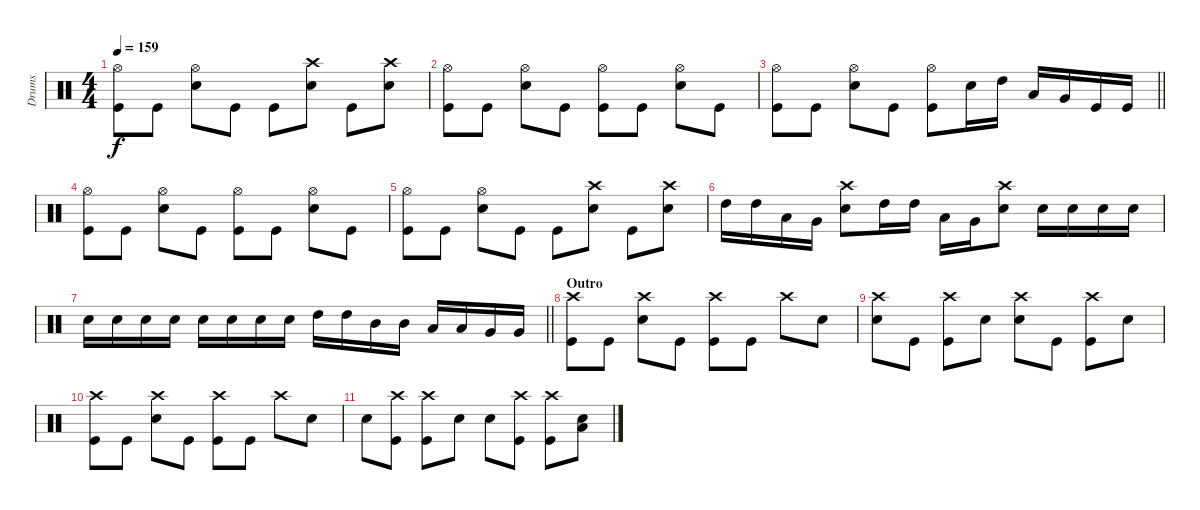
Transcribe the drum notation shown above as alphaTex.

\track ("Drums" "Drums") {instrument percussion}
\staff {score}
\articulation defaults
\ts (4 4)
\tempo 159
\clef neutral
\ks c
("Hi-Hat (open)" "Kick (hit)").8{dy f} "Kick (hit)".8 ("Hi-Hat (open)" "Snare (hit) 2").8 "Kick (hit)".8 "Kick (hit)".8 ("Crash high (hit)" "Snare (hit) 2").8 "Kick (hit)".8 ("Crash high (hit)" "Snare (hit) 2").8 |
("Hi-Hat (open)" "Kick (hit)").8 "Kick (hit)".8 ("Hi-Hat (open)" "Snare (hit) 2").8 "Kick (hit)".8 ("Hi-Hat (open)" "Kick (hit)").8 "Kick (hit)".8 ("Hi-Hat (open)" "Snare (hit) 2").8 "Kick (hit)".8 |
\barLineRight lightlight
("Hi-Hat (open)" "Kick (hit)").8 "Kick (hit)".8 ("Hi-Hat (open)" "Snare (hit) 2").8 "Kick (hit)".8 ("Hi-Hat (open)" "Kick (hit)").8 "Snare (hit) 2".16 "High Tom (hit)".16 "Low Tom (hit)".16 "Very Low Tom (hit)".16 "Kick (hit)".16 "Kick (hit)".16 |
("Hi-Hat (open)" "Kick (hit)").8 "Kick (hit)".8 ("Hi-Hat (open)" "Snare (hit) 2").8 "Kick (hit)".8 ("Hi-Hat (open)" "Kick (hit)").8 "Kick (hit)".8 ("Hi-Hat (open)" "Snare (hit) 2").8 "Kick (hit)".8 |
("Hi-Hat (open)" "Kick (hit)").8 "Kick (hit)".8 ("Hi-Hat (open)" "Snare (hit) 2").8 "Kick (hit)".8 "Kick (hit)".8 ("Crash high (hit)" "Snare (hit) 2").8 "Kick (hit)".8 ("Crash high (hit)" "Snare (hit) 2").8 |
"High Tom (hit)".16 "High Tom (hit)".16 "Low Tom (hit)".16 "Very Low Tom (hit)".16 ("Crash high (hit)" "Snare (hit) 2").8 "High Tom (hit)".16 "High Tom (hit)".16 "Low Tom (hit)".16 "Very Low Tom (hit)".16 ("Crash high (hit)" "Snare (hit) 2").8 "Snare (hit) 2".16 "Snare (hit) 2".16 "Snare (hit) 2".16 "Snare (hit) 2".16 |
\barLineRight lightlight "Snare (hit) 2".16 "Snare (hit) 2".16 "Snare (hit) 2".16 "Snare (hit) 2".16 "Snare (hit) 2".16 "Snare (hit) 2".16 "Snare (hit) 2".16 "Snare (hit) 2".16 "High Tom (hit)".16 "High Tom (hit)".16 "Mid Tom (hit)".16 "Mid Tom (hit)".16 "Low Tom (hit)".16 "Low Tom (hit)".16 "Very Low Tom (hit)".16 "Very Low Tom (hit)".16
|
\section ("" "Outro")
("Crash high (hit)" "Kick (hit)").8 "Kick (hit)".8 ("Crash high (hit)" "Snare (hit) 2").8 "Kick (hit)".8 ("Crash high (hit)" "Kick (hit)").8 "Kick (hit)".8 "Crash high (hit)".8 "Snare (hit) 2".8 |
("Crash high (hit)" "Snare (hit) 2").8 "Kick (hit)".8 ("Crash high (hit)" "Kick (hit)").8 "Snare (hit) 2".8 ("Crash high (hit)" "Snare (hit) 2").8 "Kick (hit)".8 ("Crash high (hit)" "Kick (hit)").8 "Snare (hit) 2".8 |
("Crash high (hit)" "Kick (hit)").8 "Kick (hit)".8 ("Crash high (hit)" "Snare (hit) 2").8 "Kick (hit)".8 ("Crash high (hit)" "Kick (hit)").8 "Kick (hit)".8 "Crash high (hit)".8 "Snare (hit) 2".8 |
"Snare (hit) 2".8 ("Crash high (hit)" "Kick (hit)").8 ("Crash high (hit)" "Kick (hit)").8 "Snare (hit) 2".8 "Snare (hit) 2".8 ("Crash high (hit)" "Kick (hit)").8 ("Crash high (hit)" "Kick (hit)").8 ("Low Tom (hit)" "Snare (hit) 2").8
